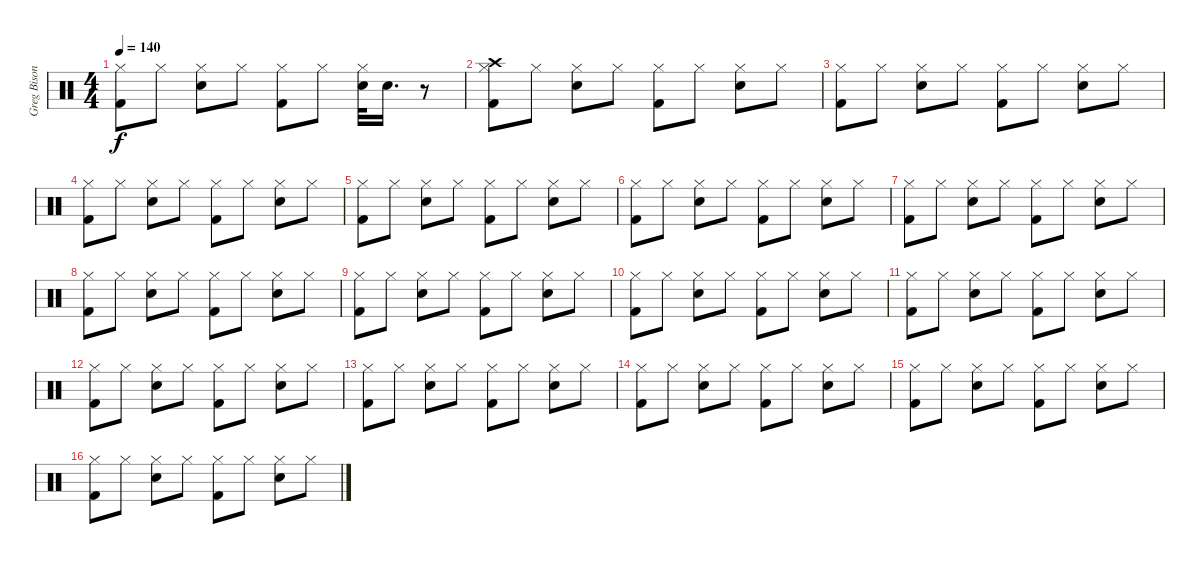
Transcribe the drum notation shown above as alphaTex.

\track ("Greg Bisonette" "Greg Bison") {instrument percussion}
\staff {score}
\articulation defaults
\ts (4 4)
\tempo 140
\clef neutral
\ks c
("Hi-Hat (closed)" "Kick (hit) 2").8{dy f} "Hi-Hat (closed)".8 ("Hi-Hat (closed)" "Electric Snare (hit)").8 "Hi-Hat (closed)".8 ("Hi-Hat (closed)" "Kick (hit) 2").8 "Hi-Hat (closed)".8 ("Hi-Hat (closed)" "Electric Snare (hit)").32 "Electric Snare (hit)".16{d} r.8 |
("Crash high (hit)" "Hi-Hat (closed)" "Kick (hit) 2").8 "Hi-Hat (closed)".8 ("Hi-Hat (closed)" "Electric Snare (hit)").8 "Hi-Hat (closed)".8 ("Hi-Hat (closed)" "Kick (hit) 2").8 "Hi-Hat (closed)".8 ("Hi-Hat (closed)" "Electric Snare (hit)").8 "Hi-Hat (closed)".8 |
("Hi-Hat (closed)" "Kick (hit) 2").8 "Hi-Hat (closed)".8 ("Hi-Hat (closed)" "Electric Snare (hit)").8 "Hi-Hat (closed)".8 ("Hi-Hat (closed)" "Kick (hit) 2").8 "Hi-Hat (closed)".8 ("Hi-Hat (closed)" "Electric Snare (hit)").8 "Hi-Hat (closed)".8 |
("Hi-Hat (closed)" "Kick (hit) 2").8 "Hi-Hat (closed)".8 ("Hi-Hat (closed)" "Electric Snare (hit)").8 "Hi-Hat (closed)".8 ("Hi-Hat (closed)" "Kick (hit) 2").8 "Hi-Hat (closed)".8 ("Hi-Hat (closed)" "Electric Snare (hit)").8 "Hi-Hat (closed)".8 |
("Hi-Hat (closed)" "Kick (hit) 2").8 "Hi-Hat (closed)".8 ("Hi-Hat (closed)" "Electric Snare (hit)").8 "Hi-Hat (closed)".8 ("Hi-Hat (closed)" "Kick (hit) 2").8 "Hi-Hat (closed)".8 ("Hi-Hat (closed)" "Electric Snare (hit)").8 "Hi-Hat (closed)".8 |
("Hi-Hat (closed)" "Kick (hit) 2").8 "Hi-Hat (closed)".8 ("Hi-Hat (closed)" "Electric Snare (hit)").8 "Hi-Hat (closed)".8 ("Hi-Hat (closed)" "Kick (hit) 2").8 "Hi-Hat (closed)".8 ("Hi-Hat (closed)" "Electric Snare (hit)").8 "Hi-Hat (closed)".8 |
("Hi-Hat (closed)" "Kick (hit) 2").8 "Hi-Hat (closed)".8 ("Hi-Hat (closed)" "Electric Snare (hit)").8 "Hi-Hat (closed)".8 ("Hi-Hat (closed)" "Kick (hit) 2").8 "Hi-Hat (closed)".8 ("Hi-Hat (closed)" "Electric Snare (hit)").8 "Hi-Hat (closed)".8 |
("Hi-Hat (closed)" "Kick (hit) 2").8 "Hi-Hat (closed)".8 ("Hi-Hat (closed)" "Electric Snare (hit)").8 "Hi-Hat (closed)".8 ("Hi-Hat (closed)" "Kick (hit) 2").8 "Hi-Hat (closed)".8 ("Hi-Hat (closed)" "Electric Snare (hit)").8 "Hi-Hat (closed)".8 |
("Hi-Hat (closed)" "Kick (hit) 2").8 "Hi-Hat (closed)".8 ("Hi-Hat (closed)" "Electric Snare (hit)").8 "Hi-Hat (closed)".8 ("Hi-Hat (closed)" "Kick (hit) 2").8 "Hi-Hat (closed)".8 ("Hi-Hat (closed)" "Electric Snare (hit)").8 "Hi-Hat (closed)".8 |
("Hi-Hat (closed)" "Kick (hit) 2").8 "Hi-Hat (closed)".8 ("Hi-Hat (closed)" "Electric Snare (hit)").8 "Hi-Hat (closed)".8 ("Hi-Hat (closed)" "Kick (hit) 2").8 "Hi-Hat (closed)".8 ("Hi-Hat (closed)" "Electric Snare (hit)").8 "Hi-Hat (closed)".8 |
("Hi-Hat (closed)" "Kick (hit) 2").8 "Hi-Hat (closed)".8 ("Hi-Hat (closed)" "Electric Snare (hit)").8 "Hi-Hat (closed)".8 ("Hi-Hat (closed)" "Kick (hit) 2").8 "Hi-Hat (closed)".8 ("Hi-Hat (closed)" "Electric Snare (hit)").8 "Hi-Hat (closed)".8 |
("Hi-Hat (closed)" "Kick (hit) 2").8 "Hi-Hat (closed)".8 ("Hi-Hat (closed)" "Electric Snare (hit)").8 "Hi-Hat (closed)".8 ("Hi-Hat (closed)" "Kick (hit) 2").8 "Hi-Hat (closed)".8 ("Hi-Hat (closed)" "Electric Snare (hit)").8 "Hi-Hat (closed)".8 |
("Hi-Hat (closed)" "Kick (hit) 2").8 "Hi-Hat (closed)".8 ("Hi-Hat (closed)" "Electric Snare (hit)").8 "Hi-Hat (closed)".8 ("Hi-Hat (closed)" "Kick (hit) 2").8 "Hi-Hat (closed)".8 ("Hi-Hat (closed)" "Electric Snare (hit)").8 "Hi-Hat (closed)".8 |
("Hi-Hat (closed)" "Kick (hit) 2").8 "Hi-Hat (closed)".8 ("Hi-Hat (closed)" "Electric Snare (hit)").8 "Hi-Hat (closed)".8 ("Hi-Hat (closed)" "Kick (hit) 2").8 "Hi-Hat (closed)".8 ("Hi-Hat (closed)" "Electric Snare (hit)").8 "Hi-Hat (closed)".8 |
("Hi-Hat (closed)" "Kick (hit) 2").8 "Hi-Hat (closed)".8 ("Hi-Hat (closed)" "Electric Snare (hit)").8 "Hi-Hat (closed)".8 ("Hi-Hat (closed)" "Kick (hit) 2").8 "Hi-Hat (closed)".8 ("Hi-Hat (closed)" "Electric Snare (hit)").8 "Hi-Hat (closed)".8 |
("Hi-Hat (closed)" "Kick (hit) 2").8 "Hi-Hat (closed)".8 ("Hi-Hat (closed)" "Electric Snare (hit)").8 "Hi-Hat (closed)".8 ("Hi-Hat (closed)" "Kick (hit) 2").8 "Hi-Hat (closed)".8 ("Hi-Hat (closed)" "Electric Snare (hit)").8 "Hi-Hat (closed)".8
